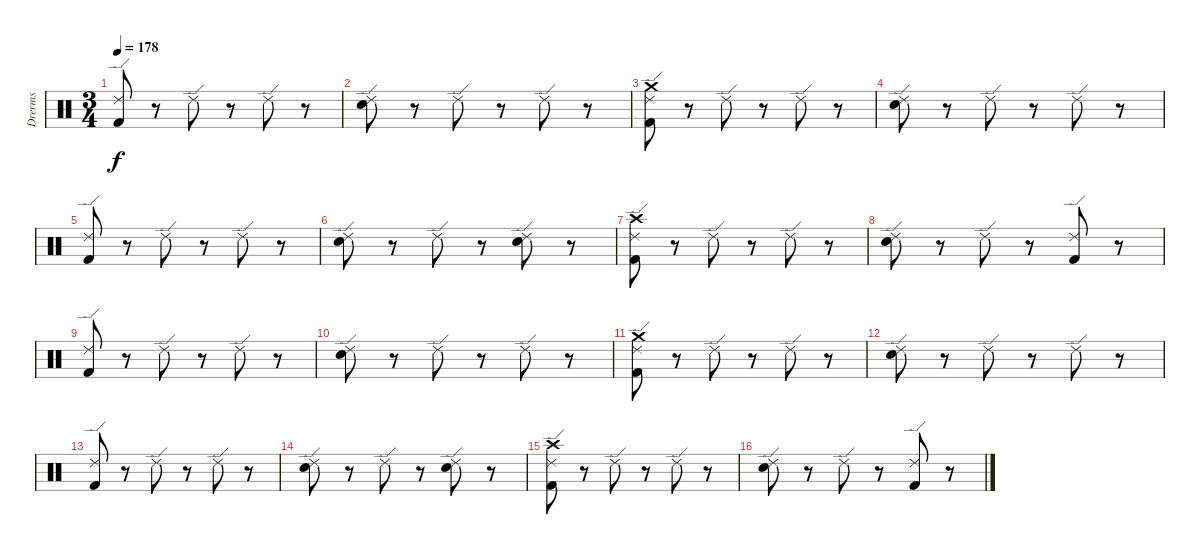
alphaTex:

\track ("Drerms" "Drerms") {instrument percussion}
\staff {score}
\articulation defaults
\ts (3 4)
\tempo 178
\clef neutral
\ks c
("Ride (edge) 2" "Kick (hit) 2").8{dy f} r.8 "Ride (edge) 2".8 r.8 "Ride (edge) 2".8 r.8 |
("Snare (hit) 2" "Ride (edge) 2").8 r.8 "Ride (edge) 2".8 r.8 "Ride (edge) 2".8 r.8 |
("Crash medium (hit)" "Ride (edge) 2" "Kick (hit) 2").8 r.8 "Ride (edge) 2".8 r.8 "Ride (edge) 2".8 r.8 |
("Snare (hit) 2" "Ride (edge) 2").8 r.8 "Ride (edge) 2".8 r.8 "Ride (edge) 2".8 r.8 |
("Ride (edge) 2" "Kick (hit) 2").8 r.8 "Ride (edge) 2".8 r.8 "Ride (edge) 2".8 r.8 |
("Snare (hit) 2" "Ride (edge) 2").8 r.8 "Ride (edge) 2".8 r.8 ("Snare (hit) 2" "Ride (edge) 2").8 r.8 |
("Crash high (hit)" "Ride (edge) 2" "Kick (hit) 2").8 r.8 "Ride (edge) 2".8 r.8 "Ride (edge) 2".8 r.8 |
("Snare (hit) 2" "Ride (edge) 2").8 r.8 "Ride (edge) 2".8 r.8 ("Ride (edge) 2" "Kick (hit) 2").8 r.8 |
("Ride (edge) 2" "Kick (hit) 2").8 r.8 "Ride (edge) 2".8 r.8 "Ride (edge) 2".8 r.8 |
("Snare (hit) 2" "Ride (edge) 2").8 r.8 "Ride (edge) 2".8 r.8 "Ride (edge) 2".8 r.8 |
("Crash medium (hit)" "Ride (edge) 2" "Kick (hit) 2").8 r.8 "Ride (edge) 2".8 r.8 "Ride (edge) 2".8 r.8 |
("Snare (hit) 2" "Ride (edge) 2").8 r.8 "Ride (edge) 2".8 r.8 "Ride (edge) 2".8 r.8 |
("Ride (edge) 2" "Kick (hit) 2").8 r.8 "Ride (edge) 2".8 r.8 "Ride (edge) 2".8 r.8 |
("Snare (hit) 2" "Ride (edge) 2").8 r.8 "Ride (edge) 2".8 r.8 ("Snare (hit) 2" "Ride (edge) 2").8 r.8 |
("Crash high (hit)" "Ride (edge) 2" "Kick (hit) 2").8 r.8 "Ride (edge) 2".8 r.8 "Ride (edge) 2".8 r.8 |
("Snare (hit) 2" "Ride (edge) 2").8 r.8 "Ride (edge) 2".8 r.8 ("Ride (edge) 2" "Kick (hit) 2").8 r.8
